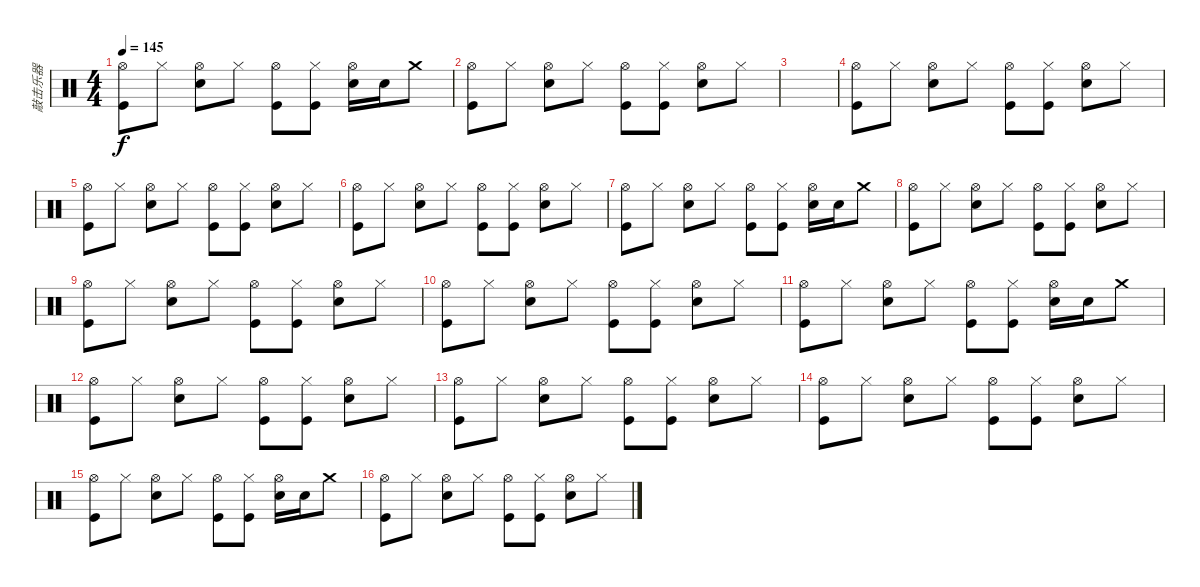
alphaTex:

\track ("敲击乐器" "敲击乐器") {instrument percussion}
\staff {score}
\articulation defaults
\ts (4 4)
\tempo 145
\clef neutral
\ks c
("Hi-Hat (open)" "Kick (hit)").8{dy f} "Hi-Hat (closed)".8 ("Hi-Hat (open)" "Snare (hit) 2").8 "Hi-Hat (closed)".8 ("Hi-Hat (open)" "Kick (hit)").8 ("Hi-Hat (closed)" "Kick (hit)").8 ("Hi-Hat (open)" "Snare (hit) 2").16 "Snare (hit) 2".16 "Crash medium (hit)".8 |
("Hi-Hat (open)" "Kick (hit)").8 "Hi-Hat (closed)".8 ("Hi-Hat (open)" "Snare (hit) 2").8 "Hi-Hat (closed)".8 ("Hi-Hat (open)" "Kick (hit)").8 ("Hi-Hat (closed)" "Kick (hit)").8 ("Hi-Hat (open)" "Snare (hit) 2").8 "Hi-Hat (closed)".8 |
|
("Hi-Hat (open)" "Kick (hit)").8 "Hi-Hat (closed)".8 ("Hi-Hat (open)" "Snare (hit) 2").8 "Hi-Hat (closed)".8 ("Hi-Hat (open)" "Kick (hit)").8 ("Hi-Hat (closed)" "Kick (hit)").8 ("Hi-Hat (open)" "Snare (hit) 2").8 "Hi-Hat (closed)".8 |
("Hi-Hat (open)" "Kick (hit)").8 "Hi-Hat (closed)".8 ("Hi-Hat (open)" "Snare (hit) 2").8 "Hi-Hat (closed)".8 ("Hi-Hat (open)" "Kick (hit)").8 ("Hi-Hat (closed)" "Kick (hit)").8 ("Hi-Hat (open)" "Snare (hit) 2").8 "Hi-Hat (closed)".8 |
("Hi-Hat (open)" "Kick (hit)").8 "Hi-Hat (closed)".8 ("Hi-Hat (open)" "Snare (hit) 2").8 "Hi-Hat (closed)".8 ("Hi-Hat (open)" "Kick (hit)").8 ("Hi-Hat (closed)" "Kick (hit)").8 ("Hi-Hat (open)" "Snare (hit) 2").8 "Hi-Hat (closed)".8 |
("Hi-Hat (open)" "Kick (hit)").8 "Hi-Hat (closed)".8 ("Hi-Hat (open)" "Snare (hit) 2").8 "Hi-Hat (closed)".8 ("Hi-Hat (open)" "Kick (hit)").8 ("Hi-Hat (closed)" "Kick (hit)").8 ("Hi-Hat (open)" "Snare (hit) 2").16 "Snare (hit) 2".16 "Crash medium (hit)".8 |
("Hi-Hat (open)" "Kick (hit)").8 "Hi-Hat (closed)".8 ("Hi-Hat (open)" "Snare (hit) 2").8 "Hi-Hat (closed)".8 ("Hi-Hat (open)" "Kick (hit)").8 ("Hi-Hat (closed)" "Kick (hit)").8 ("Hi-Hat (open)" "Snare (hit) 2").8 "Hi-Hat (closed)".8 |
("Hi-Hat (open)" "Kick (hit)").8 "Hi-Hat (closed)".8 ("Hi-Hat (open)" "Snare (hit) 2").8 "Hi-Hat (closed)".8 ("Hi-Hat (open)" "Kick (hit)").8 ("Hi-Hat (closed)" "Kick (hit)").8 ("Hi-Hat (open)" "Snare (hit) 2").8 "Hi-Hat (closed)".8 |
("Hi-Hat (open)" "Kick (hit)").8 "Hi-Hat (closed)".8 ("Hi-Hat (open)" "Snare (hit) 2").8 "Hi-Hat (closed)".8 ("Hi-Hat (open)" "Kick (hit)").8 ("Hi-Hat (closed)" "Kick (hit)").8 ("Hi-Hat (open)" "Snare (hit) 2").8 "Hi-Hat (closed)".8 |
("Hi-Hat (open)" "Kick (hit)").8 "Hi-Hat (closed)".8 ("Hi-Hat (open)" "Snare (hit) 2").8 "Hi-Hat (closed)".8 ("Hi-Hat (open)" "Kick (hit)").8 ("Hi-Hat (closed)" "Kick (hit)").8 ("Hi-Hat (open)" "Snare (hit) 2").16 "Snare (hit) 2".16 "Crash medium (hit)".8 |
("Hi-Hat (open)" "Kick (hit)").8 "Hi-Hat (closed)".8 ("Hi-Hat (open)" "Snare (hit) 2").8 "Hi-Hat (closed)".8 ("Hi-Hat (open)" "Kick (hit)").8 ("Hi-Hat (closed)" "Kick (hit)").8 ("Hi-Hat (open)" "Snare (hit) 2").8 "Hi-Hat (closed)".8 |
("Hi-Hat (open)" "Kick (hit)").8 "Hi-Hat (closed)".8 ("Hi-Hat (open)" "Snare (hit) 2").8 "Hi-Hat (closed)".8 ("Hi-Hat (open)" "Kick (hit)").8 ("Hi-Hat (closed)" "Kick (hit)").8 ("Hi-Hat (open)" "Snare (hit) 2").8 "Hi-Hat (closed)".8 |
("Hi-Hat (open)" "Kick (hit)").8 "Hi-Hat (closed)".8 ("Hi-Hat (open)" "Snare (hit) 2").8 "Hi-Hat (closed)".8 ("Hi-Hat (open)" "Kick (hit)").8 ("Hi-Hat (closed)" "Kick (hit)").8 ("Hi-Hat (open)" "Snare (hit) 2").8 "Hi-Hat (closed)".8 |
("Hi-Hat (open)" "Kick (hit)").8 "Hi-Hat (closed)".8 ("Hi-Hat (open)" "Snare (hit) 2").8 "Hi-Hat (closed)".8 ("Hi-Hat (open)" "Kick (hit)").8 ("Hi-Hat (closed)" "Kick (hit)").8 ("Hi-Hat (open)" "Snare (hit) 2").16 "Snare (hit) 2".16 "Crash medium (hit)".8 |
("Hi-Hat (open)" "Kick (hit)").8 "Hi-Hat (closed)".8 ("Hi-Hat (open)" "Snare (hit) 2").8 "Hi-Hat (closed)".8 ("Hi-Hat (open)" "Kick (hit)").8 ("Hi-Hat (closed)" "Kick (hit)").8 ("Hi-Hat (open)" "Snare (hit) 2").8 "Hi-Hat (closed)".8
